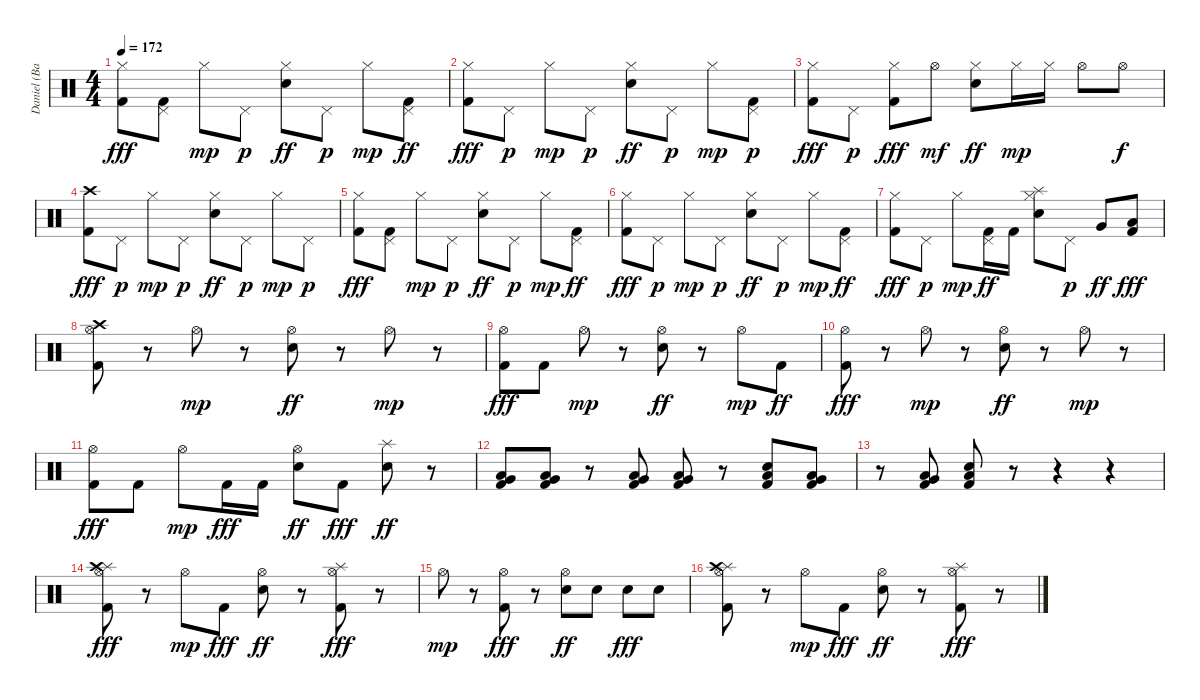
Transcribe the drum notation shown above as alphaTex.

\track ("Daniel (Bateria)" "Daniel (Ba") {instrument percussion}
\staff {score}
\articulation defaults
\ts (4 4)
\tempo 172
\clef neutral
\ks c
("Hi-Hat (closed)" "Kick (hit) 2").8{dy fff} ("Pedal Hi-Hat (hit)" "Kick (hit) 2").8 "Hi-Hat (closed)".8{dy mp} "Pedal Hi-Hat (hit)".8{dy p} ("Hi-Hat (closed)" "Electric Snare (hit)").8{dy ff} "Pedal Hi-Hat (hit)".8{dy p} "Hi-Hat (closed)".8{dy mp} ("Pedal Hi-Hat (hit)" "Kick (hit) 2").8{dy ff} |
("Hi-Hat (closed)" "Kick (hit) 2").8{dy fff} "Pedal Hi-Hat (hit)".8{dy p} "Hi-Hat (closed)".8{dy mp} "Pedal Hi-Hat (hit)".8{dy p} ("Hi-Hat (closed)" "Electric Snare (hit)").8{dy ff} "Pedal Hi-Hat (hit)".8{dy p} "Hi-Hat (closed)".8{dy mp} ("Pedal Hi-Hat (hit)" "Kick (hit) 2").8{dy p} |
("Hi-Hat (closed)" "Kick (hit) 2").8{dy fff} "Pedal Hi-Hat (hit)".8{dy p} ("Hi-Hat (closed)" "Kick (hit) 2").8{dy fff} "Hi-Hat (open)".8{dy mf} ("Hi-Hat (closed)" "Electric Snare (hit)").8{dy ff} "Hi-Hat (closed)".16{dy mp} "Hi-Hat (closed)".16 "Hi-Hat (open)".8 "Hi-Hat (open)".8{dy f} |
("Crash high (hit)" "Kick (hit) 2").8{dy fff} "Pedal Hi-Hat (hit)".8{dy p} "Hi-Hat (closed)".8{dy mp} "Pedal Hi-Hat (hit)".8{dy p} ("Hi-Hat (closed)" "Electric Snare (hit)").8{dy ff} "Pedal Hi-Hat (hit)".8{dy p} "Hi-Hat (closed)".8{dy mp} "Pedal Hi-Hat (hit)".8{dy p} |
("Hi-Hat (closed)" "Kick (hit) 2").8{dy fff} ("Pedal Hi-Hat (hit)" "Kick (hit) 2").8 "Hi-Hat (closed)".8{dy mp} "Pedal Hi-Hat (hit)".8{dy p} ("Hi-Hat (closed)" "Electric Snare (hit)").8{dy ff} "Pedal Hi-Hat (hit)".8{dy p} "Hi-Hat (closed)".8{dy mp} ("Pedal Hi-Hat (hit)" "Kick (hit) 2").8{dy ff} |
("Hi-Hat (closed)" "Kick (hit) 2").8{dy fff} "Pedal Hi-Hat (hit)".8{dy p} "Hi-Hat (closed)".8{dy mp} "Pedal Hi-Hat (hit)".8{dy p} ("Hi-Hat (closed)" "Electric Snare (hit)").8{dy ff} "Pedal Hi-Hat (hit)".8{dy p} "Hi-Hat (closed)".8{dy mp} ("Pedal Hi-Hat (hit)" "Kick (hit) 2").8{dy ff} |
("Hi-Hat (closed)" "Kick (hit) 2").8{dy fff} "Pedal Hi-Hat (hit)".8{dy p} "Hi-Hat (closed)".8{dy mp} ("Pedal Hi-Hat (hit)" "Kick (hit) 2").16{dy ff} "Kick (hit) 2".16 ("Splash (hit)" "Hi-Hat (closed)" "Electric Snare (hit)").8 "Pedal Hi-Hat (hit)".8{dy p} "Very Low Tom (hit)".8{dy ff} ("Low Floor Tom (hit)" "Kick (hit) 2").8{dy fff} |
("Hi-Hat (open)" "Crash high (hit)" "Kick (hit) 2").8 r.8 "Hi-Hat (open)".8{dy mp} r.8 ("Hi-Hat (open)" "Electric Snare (hit)").8{dy ff} r.8 "Hi-Hat (open)".8{dy mp} r.8 |
("Hi-Hat (open)" "Kick (hit) 2").8{dy fff} "Kick (hit) 2".8 "Hi-Hat (open)".8{dy mp} r.8 ("Hi-Hat (open)" "Electric Snare (hit)").8{dy ff} r.8 "Hi-Hat (open)".8{dy mp} "Kick (hit) 2".8{dy ff} |
("Hi-Hat (open)" "Kick (hit) 2").8{dy fff} r.8 "Hi-Hat (open)".8{dy mp} r.8 ("Hi-Hat (open)" "Electric Snare (hit)").8{dy ff} r.8 "Hi-Hat (open)".8{dy mp} r.8 |
("Hi-Hat (open)" "Kick (hit) 2").8{dy fff} "Kick (hit) 2".8 "Hi-Hat (open)".8{dy mp} "Kick (hit) 2".16{dy fff} "Kick (hit) 2".16 ("Hi-Hat (open)" "Electric Snare (hit)").8{dy ff} "Kick (hit) 2".8{dy fff} ("Splash (hit)" "Electric Snare (hit)").8{dy ff} r.8 |
("Low Floor Tom (hit)" "Very Low Tom (hit)" "Kick (hit) 2").8 ("Low Floor Tom (hit)" "Very Low Tom (hit)" "Kick (hit) 2").8 r.8 ("Low Floor Tom (hit)" "Very Low Tom (hit)" "Kick (hit) 2").8 ("Low Floor Tom (hit)" "Very Low Tom (hit)" "Kick (hit) 2").8 r.8 ("Low Tom (hit)" "Electric Snare (hit)" "Kick (hit) 2").8 ("Low Floor Tom (hit)" "Very Low Tom (hit)" "Kick (hit) 2").8 |
r.8 ("Low Floor Tom (hit)" "Very Low Tom (hit)" "Kick (hit) 2").8 ("Low Tom (hit)" "Electric Snare (hit)" "Kick (hit) 2").8 r.8 r.4 r.4 |
("Splash (hit)" "Hi-Hat (open)" "Crash high (hit)" "Kick (hit) 2").8{dy fff} r.8 "Hi-Hat (open)".8{dy mp} "Kick (hit) 2".8{dy fff} ("Hi-Hat (open)" "Electric Snare (hit)").8{dy ff} r.8 ("Splash (hit)" "Hi-Hat (open)" "Kick (hit) 2").8{dy fff} r.8 |
"Hi-Hat (open)".8{dy mp} r.8 ("Hi-Hat (open)" "Kick (hit) 2").8{dy fff} r.8 ("Hi-Hat (open)" "Electric Snare (hit)").8{dy ff} "Electric Snare (hit)".8 "Electric Snare (hit)".8{dy fff} "Electric Snare (hit)".8 |
("Splash (hit)" "Hi-Hat (open)" "Crash high (hit)" "Kick (hit) 2").8 r.8 "Hi-Hat (open)".8{dy mp} "Kick (hit) 2".8{dy fff} ("Hi-Hat (open)" "Electric Snare (hit)").8{dy ff} r.8 ("Splash (hit)" "Hi-Hat (open)" "Kick (hit) 2").8{dy fff} r.8
